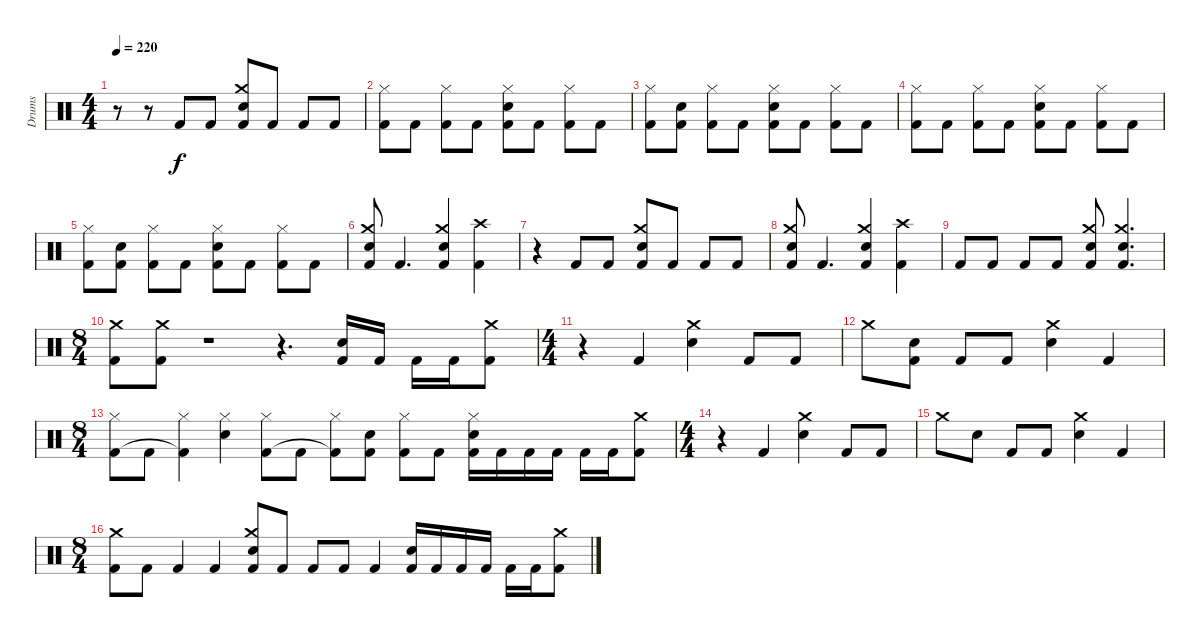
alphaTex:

\track ("Drums" "Drums") {instrument percussion}
\staff {score}
\articulation defaults
\ts (4 4)
\tempo 220
\clef neutral
\ks c
r.8{dy f} r.8 "Kick (hit) 2".8 "Kick (hit) 2".8 ("Crash medium (hit)" "Snare (hit) 2" "Kick (hit) 2").8 "Kick (hit) 2".8 "Kick (hit) 2".8 "Kick (hit) 2".8 |
("Hi-Hat (closed)" "Kick (hit) 2").8 "Kick (hit) 2".8 ("Hi-Hat (closed)" "Kick (hit) 2").8 "Kick (hit) 2".8 ("Hi-Hat (closed)" "Snare (hit) 2" "Kick (hit) 2").8 "Kick (hit) 2".8 ("Hi-Hat (closed)" "Kick (hit) 2").8 "Kick (hit) 2".8 |
("Hi-Hat (closed)" "Kick (hit) 2").8 ("Snare (hit) 2" "Kick (hit) 2").8 ("Hi-Hat (closed)" "Kick (hit) 2").8 "Kick (hit) 2".8 ("Hi-Hat (closed)" "Snare (hit) 2" "Kick (hit) 2").8 "Kick (hit) 2".8 ("Hi-Hat (closed)" "Kick (hit) 2").8 "Kick (hit) 2".8 |
("Hi-Hat (closed)" "Kick (hit) 2").8 "Kick (hit) 2".8 ("Hi-Hat (closed)" "Kick (hit) 2").8 "Kick (hit) 2".8 ("Hi-Hat (closed)" "Snare (hit) 2" "Kick (hit) 2").8 "Kick (hit) 2".8 ("Hi-Hat (closed)" "Kick (hit) 2").8 "Kick (hit) 2".8 |
("Hi-Hat (closed)" "Kick (hit) 2").8 ("Snare (hit) 2" "Kick (hit) 2").8 ("Hi-Hat (closed)" "Kick (hit) 2").8 "Kick (hit) 2".8 ("Hi-Hat (closed)" "Snare (hit) 2" "Kick (hit) 2").8 "Kick (hit) 2".8 ("Hi-Hat (closed)" "Kick (hit) 2").8 "Kick (hit) 2".8 |
("Crash medium (hit)" "Snare (hit) 2" "Kick (hit) 2").8 "Kick (hit) 2".4{d} ("Crash medium (hit)" "Snare (hit) 2" "Kick (hit) 2").4 ("Crash high (hit)" "Kick (hit) 2").4 |
r.4 "Kick (hit) 2".8 "Kick (hit) 2".8 ("Crash medium (hit)" "Snare (hit) 2" "Kick (hit) 2").8 "Kick (hit) 2".8 "Kick (hit) 2".8 "Kick (hit) 2".8 |
("Crash medium (hit)" "Snare (hit) 2" "Kick (hit) 2").8 "Kick (hit) 2".4{d} ("Crash medium (hit)" "Snare (hit) 2" "Kick (hit) 2").4 ("Crash high (hit)" "Kick (hit) 2").4 |
"Kick (hit) 2".8 "Kick (hit) 2".8 "Kick (hit) 2".8 "Kick (hit) 2".8 ("Crash medium (hit)" "Snare (hit) 2" "Kick (hit) 2").8 ("Crash medium (hit)" "Snare (hit) 2" "Kick (hit) 2").4{d} |
\ts (8 4)
("Crash medium (hit)" "Kick (hit) 2").8 ("Crash medium (hit)" "Kick (hit) 2").8 r.1 r.4{d} ("Snare (hit) 2" "Kick (hit) 2").16 "Kick (hit) 2".16 "Kick (hit) 2".16 "Kick (hit) 2".16 ("Crash medium (hit)" "Kick (hit) 2").8 |
\ts (4 4)
r.4 "Kick (hit) 2".4 ("Crash medium (hit)" "Snare (hit) 2").4 "Kick (hit) 2".8 "Kick (hit) 2".8 |
"Crash medium (hit)".8 ("Snare (hit) 2" "Kick (hit) 2").8 "Kick (hit) 2".8 "Kick (hit) 2".8 ("Crash medium (hit)" "Snare (hit) 2").4 "Kick (hit) 2".4 |
\ts (8 4)
("Hi-Hat (closed)" "Kick (hit) 2").8 "Kick (hit) 2".8 ("Hi-Hat (closed)" "Kick (hit) 2"{t}).4 ("Hi-Hat (closed)" "Snare (hit) 2").4 ("Hi-Hat (closed)" "Kick (hit) 2").8 "Kick (hit) 2".8 ("Hi-Hat (closed)" "Kick (hit) 2"{t}).8 ("Snare (hit) 2" "Kick (hit) 2").8 ("Hi-Hat (closed)" "Kick (hit) 2").8 "Kick (hit) 2".8 ("Hi-Hat (closed)" "Snare (hit) 2" "Kick (hit) 2").16 "Kick (hit) 2".16 "Kick (hit) 2".16 "Kick (hit) 2".16 "Kick (hit) 2".16 "Kick (hit) 2".16 ("Crash medium (hit)" "Kick (hit) 2").8 |
\ts (4 4)
r.4 "Kick (hit) 2".4 ("Crash medium (hit)" "Snare (hit) 2").4 "Kick (hit) 2".8 "Kick (hit) 2".8 |
"Crash medium (hit)".8 "Snare (hit) 2".8 "Kick (hit) 2".8 "Kick (hit) 2".8 ("Crash medium (hit)" "Snare (hit) 2").4 "Kick (hit) 2".4 |
\ts (8 4)
("Crash medium (hit)" "Kick (hit) 2").8 "Kick (hit) 2".8 "Kick (hit) 2".4 "Kick (hit) 2".4 ("Crash medium (hit)" "Snare (hit) 2" "Kick (hit) 2").8 "Kick (hit) 2".8 "Kick (hit) 2".8 "Kick (hit) 2".8 "Kick (hit) 2".4 ("Snare (hit) 2" "Kick (hit) 2").16 "Kick (hit) 2".16 "Kick (hit) 2".16 "Kick (hit) 2".16 "Kick (hit) 2".16 "Kick (hit) 2".16 ("Crash medium (hit)" "Kick (hit) 2").8
